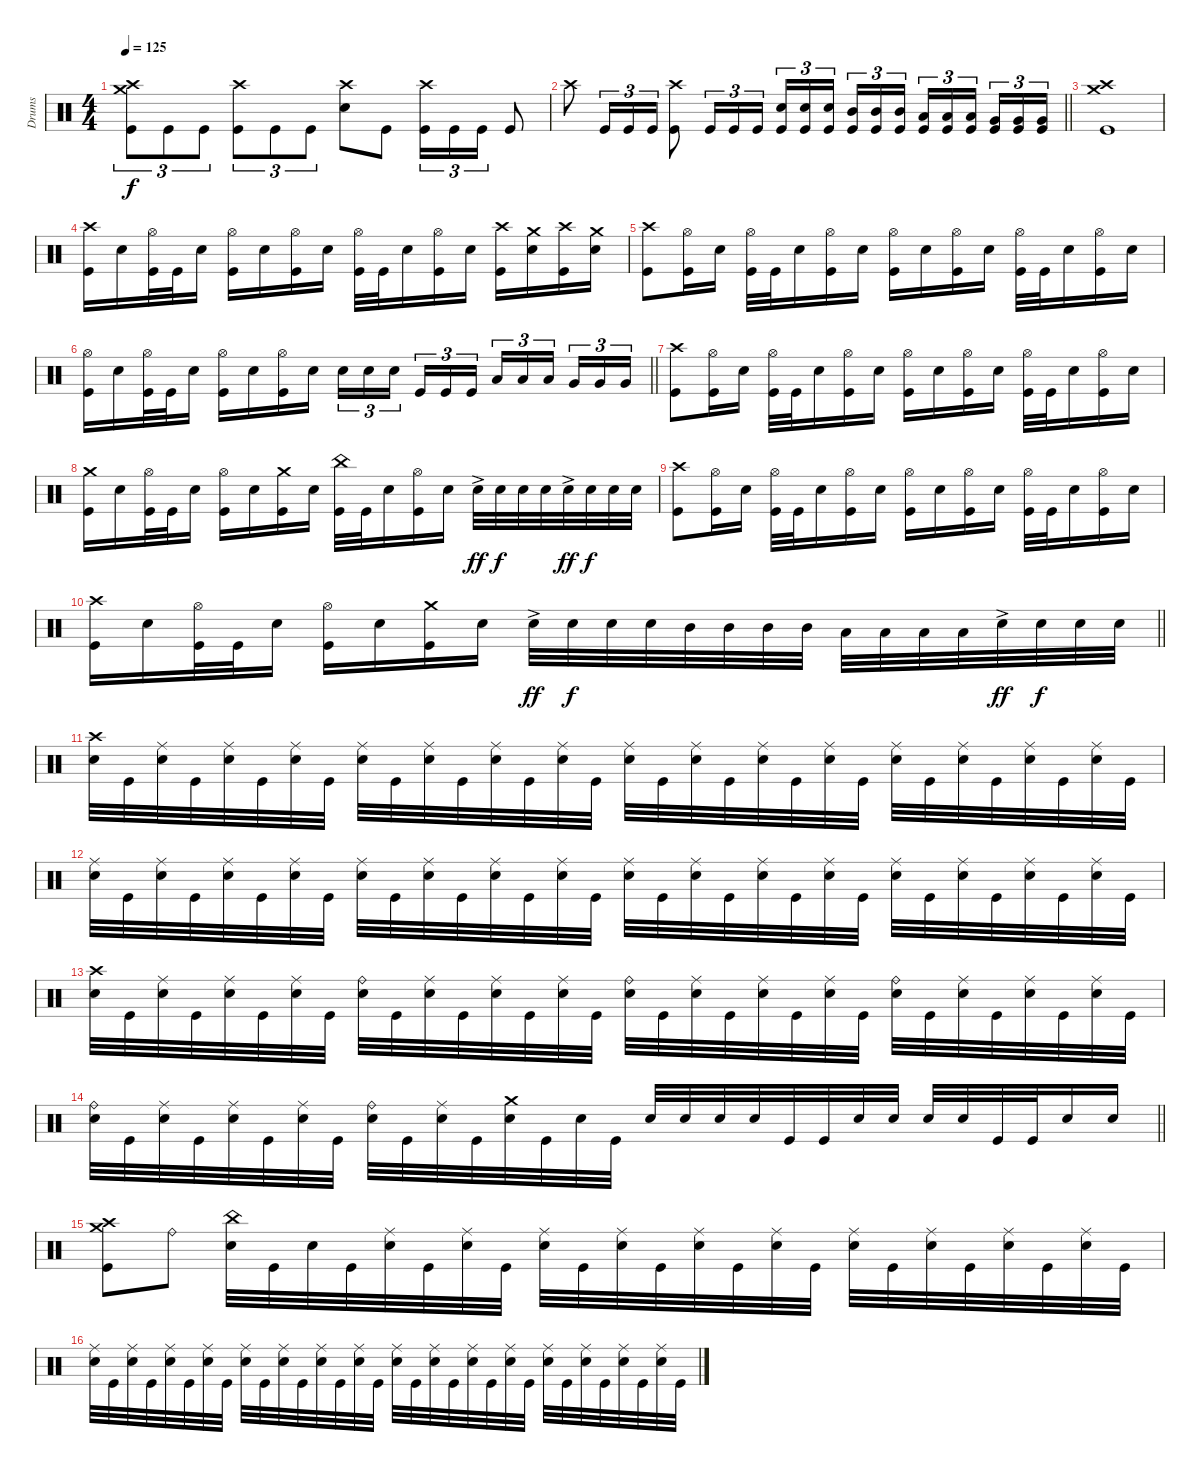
\track ("Drums" "Drums") {instrument percussion}
\staff
\articulation defaults
\ts (4 4)
\tempo 125
\clef neutral
\ks c
("Crash high (hit)" "Crash medium (hit)" "Kick (hit)").8{tu (3 2) dy f} "Kick (hit)".8{tu (3 2)} "Kick (hit)".8{tu (3 2)} ("Crash high (hit)" "Kick (hit)").8{tu (3 2)} "Kick (hit)".8{tu (3 2)} "Kick (hit)".8{tu (3 2)} ("Crash high (hit)" "Electric Snare (hit)").8 "Kick (hit)".8 ("Crash high (hit)" "Kick (hit)").16{tu (3 2)} "Kick (hit)".16{tu (3 2)} "Kick (hit)".16{tu (3 2)} "Kick (hit)".8 |
\barLineRight lightlight "Crash high (hit)".8 "Kick (hit)".16{tu (3 2)} "Kick (hit)".16{tu (3 2)} "Kick (hit)".16{tu (3 2)}
("Crash high (hit)" "Kick (hit)").8 "Kick (hit)".16{tu (3 2)} "Kick (hit)".16{tu (3 2)} "Kick (hit)".16{tu (3 2)} ("Electric Snare (hit)" "Kick (hit)").16{tu (3 2)} ("Electric Snare (hit)" "Kick (hit)").16{tu (3 2)} ("Electric Snare (hit)" "Kick (hit)").16{tu (3 2) beam splitsecondary} ("Mid Tom (hit)" "Kick (hit)").16{tu (3 2)} ("Mid Tom (hit)" "Kick (hit)").16{tu (3 2)} ("Mid Tom (hit)" "Kick (hit)").16{tu (3 2)} ("Low Tom (hit)" "Kick (hit)").16{tu (3 2)} ("Low Tom (hit)" "Kick (hit)").16{tu (3 2)} ("Low Tom (hit)" "Kick (hit)").16{tu (3 2) beam splitsecondary} ("Very Low Tom (hit)" "Kick (hit)").16{tu (3 2)} ("Very Low Tom (hit)" "Kick (hit)").16{tu (3 2)} ("Very Low Tom (hit)" "Kick (hit)").16{tu (3 2)} |
\section ("" "")
("Crash high (hit)" "Crash medium (hit)" "Kick (hit)").1 |
("Crash high (hit)" "Kick (hit)").16 "Electric Snare (hit)".16 ("Hi-Hat (open)" "Kick (hit)").32 "Kick (hit)".32 "Electric Snare (hit)".16 ("Hi-Hat (open)" "Kick (hit)").16 "Electric Snare (hit)".16 ("Hi-Hat (open)" "Kick (hit)").16 "Electric Snare (hit)".16 ("Hi-Hat (open)" "Kick (hit)").32 "Kick (hit)".32 "Electric Snare (hit)".16 ("Hi-Hat (open)" "Kick (hit)").16 "Electric Snare (hit)".16 ("Crash high (hit)" "Kick (hit)").16 ("Crash medium (hit)" "Electric Snare (hit)").16 ("Crash high (hit)" "Kick (hit)").16 ("Crash medium (hit)" "Electric Snare (hit)").16 |
("Crash high (hit)" "Kick (hit)").8 ("Hi-Hat (open)" "Kick (hit)").16 "Electric Snare (hit)".16 ("Hi-Hat (open)" "Kick (hit)").32 "Kick (hit)".32 "Electric Snare (hit)".16 ("Hi-Hat (open)" "Kick (hit)").16 "Electric Snare (hit)".16 ("Hi-Hat (open)" "Kick (hit)").16 "Electric Snare (hit)".16 ("Hi-Hat (open)" "Kick (hit)").16 "Electric Snare (hit)".16 ("Hi-Hat (open)" "Kick (hit)").32 "Kick (hit)".32 "Electric Snare (hit)".16 ("Hi-Hat (open)" "Kick (hit)").16 "Electric Snare (hit)".16 |
\barLineRight lightlight
("Hi-Hat (open)" "Kick (hit)").16 "Electric Snare (hit)".16 ("Hi-Hat (open)" "Kick (hit)").32 "Kick (hit)".32 "Electric Snare (hit)".16 ("Hi-Hat (open)" "Kick (hit)").16 "Electric Snare (hit)".16 ("Hi-Hat (open)" "Kick (hit)").16 "Electric Snare (hit)".16 "Electric Snare (hit)".16{tu (3 2)} "Electric Snare (hit)".16{tu (3 2)} "Electric Snare (hit)".16{tu (3 2) beam splitsecondary} "Kick (hit)".16{tu (3 2)} "Kick (hit)".16{tu (3 2)} "Kick (hit)".16{tu (3 2)} "Low Tom (hit)".16{tu (3 2)} "Low Tom (hit)".16{tu (3 2)} "Low Tom (hit)".16{tu (3 2) beam splitsecondary} "Very Low Tom (hit)".16{tu (3 2)} "Very Low Tom (hit)".16{tu (3 2)} "Very Low Tom (hit)".16{tu (3 2)} |
("Crash high (hit)" "Kick (hit)").8 ("Hi-Hat (open)" "Kick (hit)").16 "Electric Snare (hit)".16 ("Hi-Hat (open)" "Kick (hit)").32 "Kick (hit)".32 "Electric Snare (hit)".16 ("Hi-Hat (open)" "Kick (hit)").16 "Electric Snare (hit)".16 ("Hi-Hat (open)" "Kick (hit)").16 "Electric Snare (hit)".16 ("Hi-Hat (open)" "Kick (hit)").16 "Electric Snare (hit)".16 ("Hi-Hat (open)" "Kick (hit)").32 "Kick (hit)".32 "Electric Snare (hit)".16 ("Hi-Hat (open)" "Kick (hit)").16 "Electric Snare (hit)".16 |
("Crash medium (hit)" "Kick (hit)").16 "Electric Snare (hit)".16 ("Hi-Hat (open)" "Kick (hit)").32 "Kick (hit)".32 "Electric Snare (hit)".16 ("Hi-Hat (open)" "Kick (hit)").16 "Electric Snare (hit)".16 ("Crash medium (hit)" "Kick (hit)").16 "Electric Snare (hit)".16 ("China (hit)" "Kick (hit)").32 "Kick (hit)".32 "Electric Snare (hit)".16 ("Hi-Hat (open)" "Kick (hit)").16 "Electric Snare (hit)".16 "Electric Snare (hit)"{ac}.32{dy ff} "Electric Snare (hit)".32{dy f} "Electric Snare (hit)".32 "Electric Snare (hit)".32 "Electric Snare (hit)"{ac}.32{dy ff} "Electric Snare (hit)".32{dy f} "Electric Snare (hit)".32 "Electric Snare (hit)".32 |
("Crash high (hit)" "Kick (hit)").8 ("Hi-Hat (open)" "Kick (hit)").16 "Electric Snare (hit)".16 ("Hi-Hat (open)" "Kick (hit)").32 "Kick (hit)".32 "Electric Snare (hit)".16 ("Hi-Hat (open)" "Kick (hit)").16 "Electric Snare (hit)".16 ("Hi-Hat (open)" "Kick (hit)").16 "Electric Snare (hit)".16 ("Hi-Hat (open)" "Kick (hit)").16 "Electric Snare (hit)".16 ("Hi-Hat (open)" "Kick (hit)").32 "Kick (hit)".32 "Electric Snare (hit)".16 ("Hi-Hat (open)" "Kick (hit)").16 "Electric Snare (hit)".16 |
\barLineRight lightlight
("Crash high (hit)" "Kick (hit)").16 "Electric Snare (hit)".16 ("Hi-Hat (open)" "Kick (hit)").32 "Kick (hit)".32 "Electric Snare (hit)".16 ("Hi-Hat (open)" "Kick (hit)").16 "Electric Snare (hit)".16 ("Crash medium (hit)" "Kick (hit)").16 "Electric Snare (hit)".16 "Electric Snare (hit)"{ac}.32{dy ff} "Electric Snare (hit)".32{dy f} "Electric Snare (hit)".32 "Electric Snare (hit)".32 "Mid Tom (hit)".32 "Mid Tom (hit)".32 "Mid Tom (hit)".32 "Mid Tom (hit)".32 "Low Tom (hit)".32 "Low Tom (hit)".32 "Low Tom (hit)".32 "Low Tom (hit)".32 "Electric Snare (hit)"{ac}.32{dy ff} "Electric Snare (hit)".32{dy f} "Electric Snare (hit)".32 "Electric Snare (hit)".32 |
\section ("" "")
("Crash high (hit)" "Electric Snare (hit)").32 "Kick (hit)".32 ("Ride (middle)" "Electric Snare (hit)").32 "Kick (hit)".32 ("Ride (middle)" "Electric Snare (hit)").32 "Kick (hit)".32 ("Ride (middle)" "Electric Snare (hit)").32 "Kick (hit)".32 ("Ride (middle)" "Electric Snare (hit)").32 "Kick (hit)".32 ("Ride (middle)" "Electric Snare (hit)").32 "Kick (hit)".32 ("Ride (middle)" "Electric Snare (hit)").32 "Kick (hit)".32 ("Ride (middle)" "Electric Snare (hit)").32 "Kick (hit)".32 ("Ride (middle)" "Electric Snare (hit)").32 "Kick (hit)".32 ("Ride (middle)" "Electric Snare (hit)").32 "Kick (hit)".32 ("Ride (middle)" "Electric Snare (hit)").32 "Kick (hit)".32 ("Ride (middle)" "Electric Snare (hit)").32 "Kick (hit)".32 ("Ride (middle)" "Electric Snare (hit)").32 "Kick (hit)".32 ("Ride (middle)" "Electric Snare (hit)").32 "Kick (hit)".32 ("Ride (middle)" "Electric Snare (hit)").32 "Kick (hit)".32 ("Ride (middle)" "Electric Snare (hit)").32 "Kick (hit)".32 |
("Ride (middle)" "Electric Snare (hit)").32 "Kick (hit)".32 ("Ride (middle)" "Electric Snare (hit)").32 "Kick (hit)".32 ("Ride (middle)" "Electric Snare (hit)").32 "Kick (hit)".32 ("Ride (middle)" "Electric Snare (hit)").32 "Kick (hit)".32 ("Ride (middle)" "Electric Snare (hit)").32 "Kick (hit)".32 ("Ride (middle)" "Electric Snare (hit)").32 "Kick (hit)".32 ("Ride (middle)" "Electric Snare (hit)").32 "Kick (hit)".32 ("Ride (middle)" "Electric Snare (hit)").32 "Kick (hit)".32 ("Ride (middle)" "Electric Snare (hit)").32 "Kick (hit)".32 ("Ride (middle)" "Electric Snare (hit)").32 "Kick (hit)".32 ("Ride (middle)" "Electric Snare (hit)").32 "Kick (hit)".32 ("Ride (middle)" "Electric Snare (hit)").32 "Kick (hit)".32 ("Ride (middle)" "Electric Snare (hit)").32 "Kick (hit)".32 ("Ride (middle)" "Electric Snare (hit)").32 "Kick (hit)".32 ("Ride (middle)" "Electric Snare (hit)").32 "Kick (hit)".32 ("Ride (middle)" "Electric Snare (hit)").32 "Kick (hit)".32 |
("Crash high (hit)" "Electric Snare (hit)").32 "Kick (hit)".32 ("Ride (middle)" "Electric Snare (hit)").32 "Kick (hit)".32 ("Ride (middle)" "Electric Snare (hit)").32 "Kick (hit)".32 ("Ride (middle)" "Electric Snare (hit)").32 "Kick (hit)".32 ("Ride (bell)" "Electric Snare (hit)").32 "Kick (hit)".32 ("Ride (middle)" "Electric Snare (hit)").32 "Kick (hit)".32 ("Ride (middle)" "Electric Snare (hit)").32 "Kick (hit)".32 ("Ride (middle)" "Electric Snare (hit)").32 "Kick (hit)".32 ("Ride (bell)" "Electric Snare (hit)").32 "Kick (hit)".32 ("Ride (middle)" "Electric Snare (hit)").32 "Kick (hit)".32 ("Ride (middle)" "Electric Snare (hit)").32 "Kick (hit)".32 ("Ride (middle)" "Electric Snare (hit)").32 "Kick (hit)".32 ("Ride (bell)" "Electric Snare (hit)").32 "Kick (hit)".32 ("Ride (middle)" "Electric Snare (hit)").32 "Kick (hit)".32 ("Ride (middle)" "Electric Snare (hit)").32 "Kick (hit)".32 ("Ride (middle)" "Electric Snare (hit)").32 "Kick (hit)".32 |
\barLineRight lightlight
("Ride (bell)" "Electric Snare (hit)").32 "Kick (hit)".32 ("Ride (middle)" "Electric Snare (hit)").32 "Kick (hit)".32 ("Ride (middle)" "Electric Snare (hit)").32 "Kick (hit)".32 ("Ride (middle)" "Electric Snare (hit)").32 "Kick (hit)".32 ("Ride (bell)" "Electric Snare (hit)").32 "Kick (hit)".32 ("Ride (middle)" "Electric Snare (hit)").32 "Kick (hit)".32 ("Crash medium (hit)" "Electric Snare (hit)").32 "Kick (hit)".32 "Electric Snare (hit)".32 "Kick (hit)".32 "Electric Snare (hit)".32 "Electric Snare (hit)".32 "Electric Snare (hit)".32 "Electric Snare (hit)".32 "Kick (hit)".32 "Kick (hit)".32 "Electric Snare (hit)".32 "Electric Snare (hit)".32 "Electric Snare (hit)".32 "Electric Snare (hit)".32 "Kick (hit)".32 "Kick (hit)".32 "Electric Snare (hit)".16 "Electric Snare (hit)".16 |
("Crash high (hit)" "Crash medium (hit)" "Kick (hit)").8 "Ride (bell)".8 ("China (hit)" "Electric Snare (hit)").32 "Kick (hit)".32 "Electric Snare (hit)".32 "Kick (hit)".32 ("Ride (middle)" "Electric Snare (hit)").32 "Kick (hit)".32 ("Ride (middle)" "Electric Snare (hit)").32 "Kick (hit)".32 ("Ride (middle)" "Electric Snare (hit)").32 "Kick (hit)".32 ("Ride (middle)" "Electric Snare (hit)").32 "Kick (hit)".32 ("Ride (middle)" "Electric Snare (hit)").32 "Kick (hit)".32 ("Ride (middle)" "Electric Snare (hit)").32 "Kick (hit)".32 ("Ride (middle)" "Electric Snare (hit)").32 "Kick (hit)".32 ("Ride (middle)" "Electric Snare (hit)").32 "Kick (hit)".32 ("Ride (middle)" "Electric Snare (hit)").32 "Kick (hit)".32 ("Ride (middle)" "Electric Snare (hit)").32 "Kick (hit)".32 |
("Ride (middle)" "Electric Snare (hit)").32 "Kick (hit)".32 ("Ride (middle)" "Electric Snare (hit)").32 "Kick (hit)".32 ("Ride (middle)" "Electric Snare (hit)").32 "Kick (hit)".32 ("Ride (middle)" "Electric Snare (hit)").32 "Kick (hit)".32 ("Ride (middle)" "Electric Snare (hit)").32 "Kick (hit)".32 ("Ride (middle)" "Electric Snare (hit)").32 "Kick (hit)".32 ("Ride (middle)" "Electric Snare (hit)").32 "Kick (hit)".32 ("Ride (middle)" "Electric Snare (hit)").32 "Kick (hit)".32 ("Ride (middle)" "Electric Snare (hit)").32 "Kick (hit)".32 ("Ride (middle)" "Electric Snare (hit)").32 "Kick (hit)".32 ("Ride (middle)" "Electric Snare (hit)").32 "Kick (hit)".32 ("Ride (middle)" "Electric Snare (hit)").32 "Kick (hit)".32 ("Ride (middle)" "Electric Snare (hit)").32 "Kick (hit)".32 ("Ride (middle)" "Electric Snare (hit)").32 "Kick (hit)".32 ("Ride (middle)" "Electric Snare (hit)").32 "Kick (hit)".32 ("Ride (middle)" "Electric Snare (hit)").32 "Kick (hit)".32
